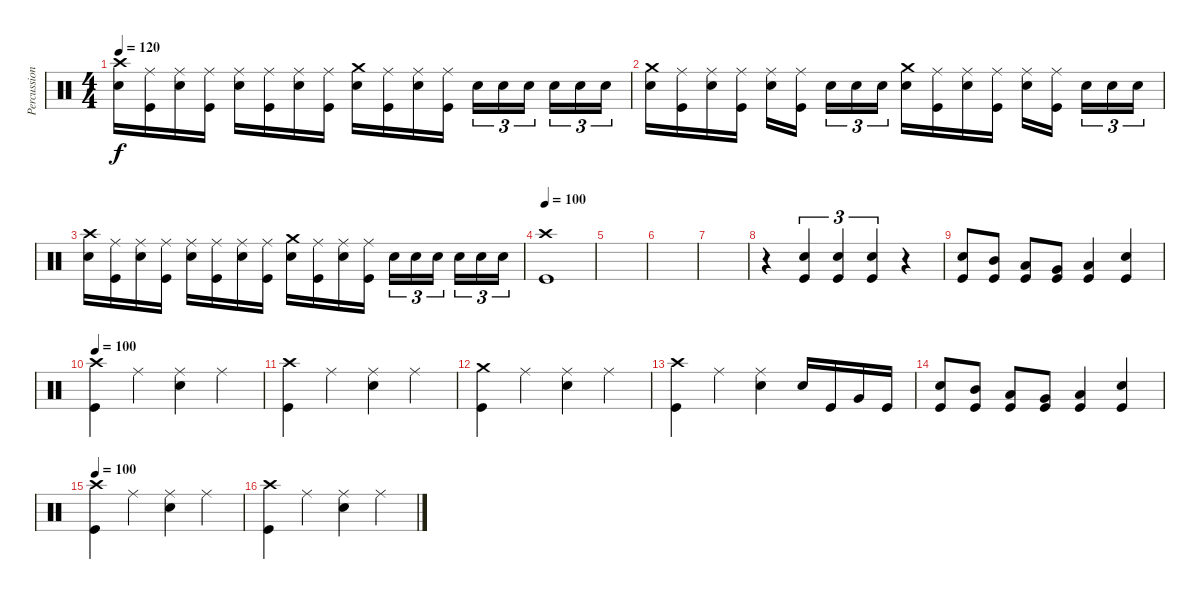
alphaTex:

\track ("Percussioni" "Percussion") {instrument percussion}
\staff {score}
\articulation defaults
\ts (4 4)
\tempo 120
\clef neutral
\ks c
("Crash high (hit)" "Electric Snare (hit)").16{dy f} ("Ride (middle)" "Kick (hit)").16 ("Ride (middle)" "Electric Snare (hit)").16 ("Ride (middle)" "Kick (hit)").16 ("Ride (middle)" "Electric Snare (hit)").16 ("Ride (middle)" "Kick (hit)").16 ("Ride (middle)" "Electric Snare (hit)").16 ("Ride (middle)" "Kick (hit)").16 ("Crash medium (hit)" "Electric Snare (hit)").16 ("Ride (middle)" "Kick (hit)").16 ("Ride (middle)" "Electric Snare (hit)").16 ("Ride (middle)" "Kick (hit)").16 "Electric Snare (hit)".16{tu (3 2)} "Electric Snare (hit)".16{tu (3 2)} "Electric Snare (hit)".16{tu (3 2)} "Electric Snare (hit)".16{tu (3 2)} "Electric Snare (hit)".16{tu (3 2)} "Electric Snare (hit)".16{tu (3 2)} |
("Crash medium (hit)" "Electric Snare (hit)").16 ("Ride (middle)" "Kick (hit)").16 ("Ride (middle)" "Electric Snare (hit)").16 ("Ride (middle)" "Kick (hit)").16 ("Ride (middle)" "Electric Snare (hit)").16 ("Ride (middle)" "Kick (hit)").16 "Electric Snare (hit)".16{tu (3 2)} "Electric Snare (hit)".16{tu (3 2)} "Electric Snare (hit)".16{tu (3 2)} ("Crash medium (hit)" "Electric Snare (hit)").16 ("Ride (middle)" "Kick (hit)").16 ("Ride (middle)" "Electric Snare (hit)").16 ("Ride (middle)" "Kick (hit)").16 ("Ride (middle)" "Electric Snare (hit)").16 ("Ride (middle)" "Kick (hit)").16 "Electric Snare (hit)".16{tu (3 2)} "Electric Snare (hit)".16{tu (3 2)} "Electric Snare (hit)".16{tu (3 2)} |
("Crash high (hit)" "Electric Snare (hit)").16 ("Ride (middle)" "Kick (hit)").16 ("Ride (middle)" "Electric Snare (hit)").16 ("Ride (middle)" "Kick (hit)").16 ("Ride (middle)" "Electric Snare (hit)").16 ("Ride (middle)" "Kick (hit)").16 ("Ride (middle)" "Electric Snare (hit)").16 ("Ride (middle)" "Kick (hit)").16 ("Crash medium (hit)" "Electric Snare (hit)").16 ("Ride (middle)" "Kick (hit)").16 ("Ride (middle)" "Electric Snare (hit)").16 ("Ride (middle)" "Kick (hit)").16 "Electric Snare (hit)".16{tu (3 2)} "Electric Snare (hit)".16{tu (3 2)} "Electric Snare (hit)".16{tu (3 2)} "Electric Snare (hit)".16{tu (3 2)} "Electric Snare (hit)".16{tu (3 2)} "Electric Snare (hit)".16{tu (3 2)} |
\tempo 100
("Crash high (hit)" "Kick (hit)").1 |
|
|
|
r.4 ("Electric Snare (hit)" "Kick (hit)").4{tu (3 2)} ("Electric Snare (hit)" "Kick (hit)").4{tu (3 2)} ("Electric Snare (hit)" "Kick (hit)").4{tu (3 2)} r.4 |
("Electric Snare (hit)" "Kick (hit)").8 ("Mid Tom (hit)" "Kick (hit)").8 ("Low Tom (hit)" "Kick (hit)").8 ("Very Low Tom (hit)" "Kick (hit)").8 ("Low Floor Tom (hit)" "Kick (hit)").4 ("Electric Snare (hit)" "Kick (hit)").4 |
\tempo 100
("Crash high (hit)" "Kick (hit)").4 "Ride (middle)".4 ("Ride (middle)" "Electric Snare (hit)").4 "Ride (middle)".4 |
("Crash high (hit)" "Kick (hit)").4 "Ride (middle)".4 ("Ride (middle)" "Electric Snare (hit)").4 "Ride (middle)".4 |
("Crash medium (hit)" "Kick (hit)").4 "Ride (middle)".4 ("Ride (middle)" "Electric Snare (hit)").4 "Ride (middle)".4 |
("Crash high (hit)" "Kick (hit)").4 "Ride (middle)".4 ("Ride (middle)" "Electric Snare (hit)").4 "Electric Snare (hit)".16 "Kick (hit)".16 "Very Low Tom (hit)".16 "Kick (hit)".16 |
("Electric Snare (hit)" "Kick (hit)").8 ("Mid Tom (hit)" "Kick (hit)").8 ("Low Tom (hit)" "Kick (hit)").8 ("Very Low Tom (hit)" "Kick (hit)").8 ("Low Floor Tom (hit)" "Kick (hit)").4 ("Electric Snare (hit)" "Kick (hit)").4 |
\tempo 100
("Crash high (hit)" "Kick (hit)").4 "Ride (middle)".4 ("Ride (middle)" "Electric Snare (hit)").4 "Ride (middle)".4 |
("Crash high (hit)" "Kick (hit)").4 "Ride (middle)".4 ("Ride (middle)" "Electric Snare (hit)").4 "Ride (middle)".4
